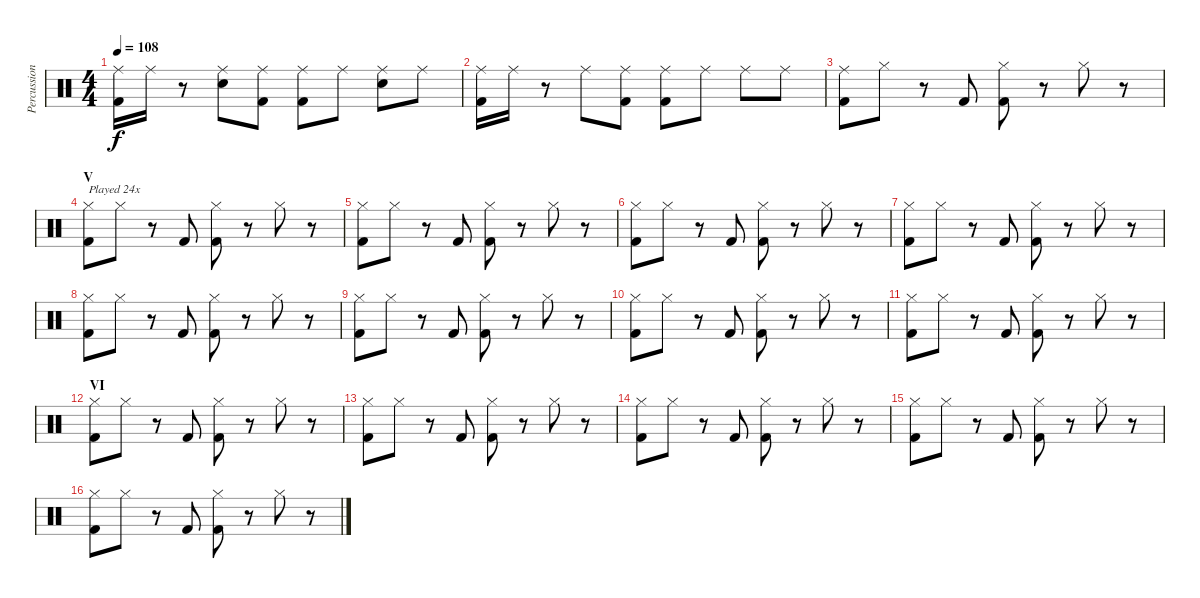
\track ("Percussion" "Percussion") {instrument percussion}
\staff {score}
\articulation defaults
\ts (4 4)
\tempo 108
\clef neutral
\ks c
("Ride (middle)" "Kick (hit) 2").16{dy f} "Ride (middle)".16 r.8 ("Ride (middle)" "Electric Snare (hit)").8 ("Ride (middle)" "Kick (hit) 2").8 ("Ride (middle)" "Kick (hit) 2").8 "Ride (middle)".8 ("Ride (middle)" "Electric Snare (hit)").8 "Ride (middle)".8 |
("Ride (middle)" "Kick (hit) 2").16 "Ride (middle)".16 r.8 "Ride (middle)".8 ("Ride (middle)" "Kick (hit) 2").8 ("Ride (middle)" "Kick (hit) 2").8 "Ride (middle)".8 "Ride (middle)".8 "Ride (middle)".8 |
("Ride (middle)" "Kick (hit) 2").8 "Hi-Hat (closed)".8 r.8 "Kick (hit) 2".8 ("Hi-Hat (closed)" "Kick (hit) 2").8 r.8 "Hi-Hat (closed)".8 r.8 |
\section ("" "V")
("Hi-Hat (closed)" "Kick (hit) 2").8{txt "Played 24x"} "Hi-Hat (closed)".8 r.8 "Kick (hit) 2".8 ("Hi-Hat (closed)" "Kick (hit) 2").8 r.8 "Hi-Hat (closed)".8 r.8 |
("Hi-Hat (closed)" "Kick (hit) 2").8 "Hi-Hat (closed)".8 r.8 "Kick (hit) 2".8 ("Hi-Hat (closed)" "Kick (hit) 2").8 r.8 "Hi-Hat (closed)".8 r.8 |
("Hi-Hat (closed)" "Kick (hit) 2").8 "Hi-Hat (closed)".8 r.8 "Kick (hit) 2".8 ("Hi-Hat (closed)" "Kick (hit) 2").8 r.8 "Hi-Hat (closed)".8 r.8 |
("Hi-Hat (closed)" "Kick (hit) 2").8 "Hi-Hat (closed)".8 r.8 "Kick (hit) 2".8 ("Hi-Hat (closed)" "Kick (hit) 2").8 r.8 "Hi-Hat (closed)".8 r.8 |
("Hi-Hat (closed)" "Kick (hit) 2").8 "Hi-Hat (closed)".8 r.8 "Kick (hit) 2".8 ("Hi-Hat (closed)" "Kick (hit) 2").8 r.8 "Hi-Hat (closed)".8 r.8 |
("Hi-Hat (closed)" "Kick (hit) 2").8 "Hi-Hat (closed)".8 r.8 "Kick (hit) 2".8 ("Hi-Hat (closed)" "Kick (hit) 2").8 r.8 "Hi-Hat (closed)".8 r.8 |
("Hi-Hat (closed)" "Kick (hit) 2").8 "Hi-Hat (closed)".8 r.8 "Kick (hit) 2".8 ("Hi-Hat (closed)" "Kick (hit) 2").8 r.8 "Hi-Hat (closed)".8 r.8 |
("Hi-Hat (closed)" "Kick (hit) 2").8 "Hi-Hat (closed)".8 r.8 "Kick (hit) 2".8 ("Hi-Hat (closed)" "Kick (hit) 2").8 r.8 "Hi-Hat (closed)".8 r.8 |
\section ("" "VI")
("Hi-Hat (closed)" "Kick (hit) 2").8 "Hi-Hat (closed)".8 r.8 "Kick (hit) 2".8 ("Hi-Hat (closed)" "Kick (hit) 2").8 r.8 "Hi-Hat (closed)".8 r.8 |
("Hi-Hat (closed)" "Kick (hit) 2").8 "Hi-Hat (closed)".8 r.8 "Kick (hit) 2".8 ("Hi-Hat (closed)" "Kick (hit) 2").8 r.8 "Hi-Hat (closed)".8 r.8 |
("Hi-Hat (closed)" "Kick (hit) 2").8 "Hi-Hat (closed)".8 r.8 "Kick (hit) 2".8 ("Hi-Hat (closed)" "Kick (hit) 2").8 r.8 "Hi-Hat (closed)".8 r.8 |
("Hi-Hat (closed)" "Kick (hit) 2").8 "Hi-Hat (closed)".8 r.8 "Kick (hit) 2".8 ("Hi-Hat (closed)" "Kick (hit) 2").8 r.8 "Hi-Hat (closed)".8 r.8 |
("Hi-Hat (closed)" "Kick (hit) 2").8 "Hi-Hat (closed)".8 r.8 "Kick (hit) 2".8 ("Hi-Hat (closed)" "Kick (hit) 2").8 r.8 "Hi-Hat (closed)".8 r.8
